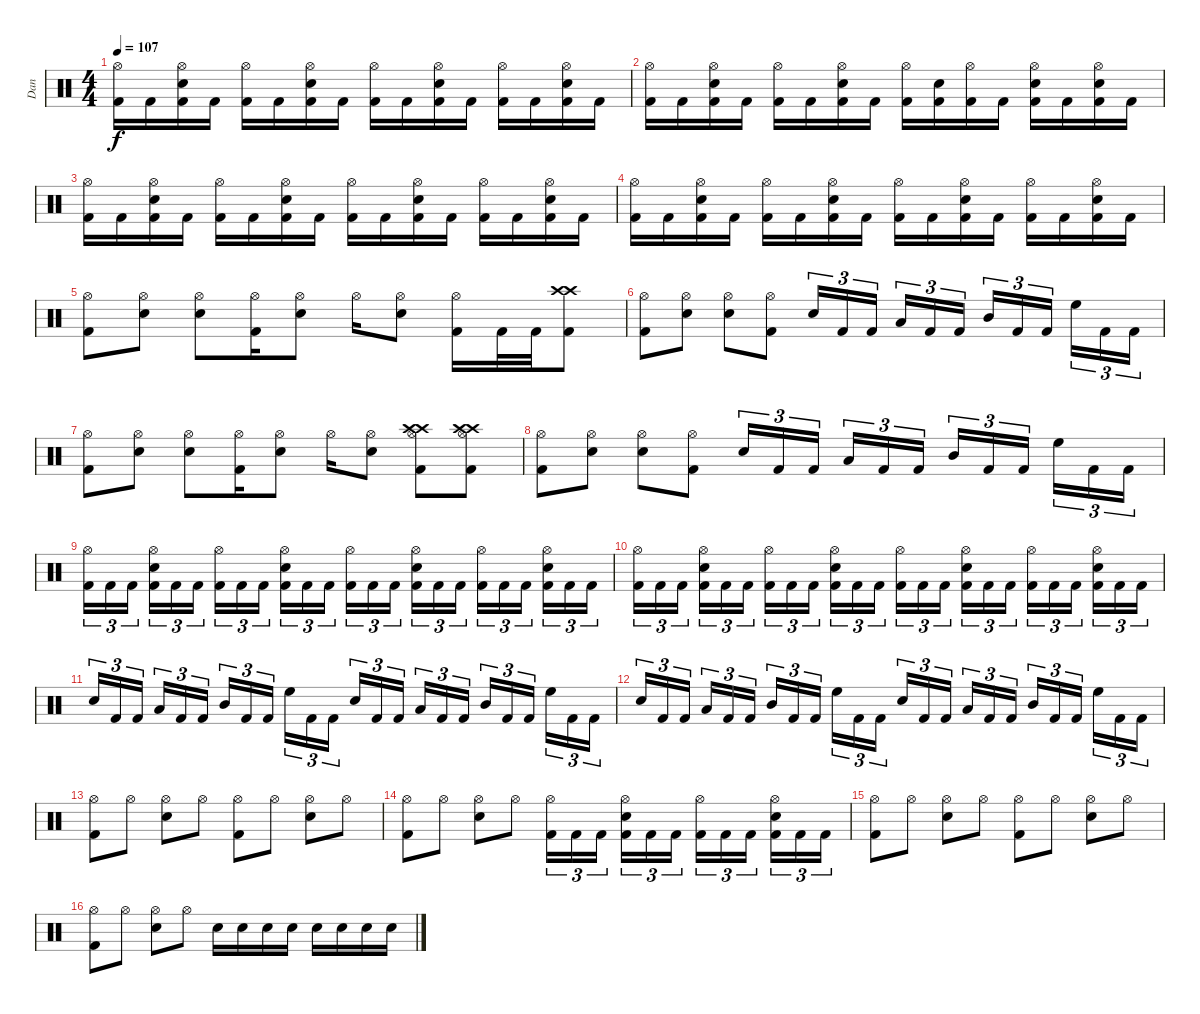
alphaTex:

\track ("Dan" "Dan") {instrument percussion}
\staff {score}
\articulation defaults
\ts (4 4)
\tempo 107
\clef neutral
\ks c
("Hi-Hat (open)" "Kick (hit) 2").16{dy f} "Kick (hit) 2".16 ("Hi-Hat (open)" "Kick (hit) 2" "Electric Snare (hit)").16 "Kick (hit) 2".16 ("Hi-Hat (open)" "Kick (hit) 2").16 "Kick (hit) 2".16 ("Hi-Hat (open)" "Kick (hit) 2" "Electric Snare (hit)").16 "Kick (hit) 2".16 ("Hi-Hat (open)" "Kick (hit) 2").16 "Kick (hit) 2".16 ("Hi-Hat (open)" "Kick (hit) 2" "Electric Snare (hit)").16 "Kick (hit) 2".16 ("Hi-Hat (open)" "Kick (hit) 2").16 "Kick (hit) 2".16 ("Hi-Hat (open)" "Kick (hit) 2" "Electric Snare (hit)").16 "Kick (hit) 2".16 |
("Hi-Hat (open)" "Kick (hit) 2").16 "Kick (hit) 2".16 ("Hi-Hat (open)" "Kick (hit) 2" "Electric Snare (hit)").16 "Kick (hit) 2".16 ("Hi-Hat (open)" "Kick (hit) 2").16 "Kick (hit) 2".16 ("Hi-Hat (open)" "Kick (hit) 2" "Electric Snare (hit)").16 "Kick (hit) 2".16 ("Hi-Hat (open)" "Kick (hit) 2").16 ("Kick (hit) 2" "Electric Snare (hit)").16 ("Hi-Hat (open)" "Kick (hit) 2").16 "Kick (hit) 2".16 ("Hi-Hat (open)" "Kick (hit) 2" "Electric Snare (hit)").16 "Kick (hit) 2".16 ("Hi-Hat (open)" "Kick (hit) 2" "Electric Snare (hit)").16 "Kick (hit) 2".16 |
("Hi-Hat (open)" "Kick (hit) 2").16 "Kick (hit) 2".16 ("Hi-Hat (open)" "Kick (hit) 2" "Electric Snare (hit)").16 "Kick (hit) 2".16 ("Hi-Hat (open)" "Kick (hit) 2").16 "Kick (hit) 2".16 ("Hi-Hat (open)" "Kick (hit) 2" "Electric Snare (hit)").16 "Kick (hit) 2".16 ("Hi-Hat (open)" "Kick (hit) 2").16 "Kick (hit) 2".16 ("Hi-Hat (open)" "Kick (hit) 2" "Electric Snare (hit)").16 "Kick (hit) 2".16 ("Hi-Hat (open)" "Kick (hit) 2").16 "Kick (hit) 2".16 ("Hi-Hat (open)" "Kick (hit) 2" "Electric Snare (hit)").16 "Kick (hit) 2".16 |
("Hi-Hat (open)" "Kick (hit) 2").16 "Kick (hit) 2".16 ("Hi-Hat (open)" "Kick (hit) 2" "Electric Snare (hit)").16 "Kick (hit) 2".16 ("Hi-Hat (open)" "Kick (hit) 2").16 "Kick (hit) 2".16 ("Hi-Hat (open)" "Kick (hit) 2" "Electric Snare (hit)").16 "Kick (hit) 2".16 ("Hi-Hat (open)" "Kick (hit) 2").16 "Kick (hit) 2".16 ("Hi-Hat (open)" "Kick (hit) 2" "Electric Snare (hit)").16 "Kick (hit) 2".16 ("Hi-Hat (open)" "Kick (hit) 2").16 "Kick (hit) 2".16 ("Hi-Hat (open)" "Kick (hit) 2" "Electric Snare (hit)").16 "Kick (hit) 2".16 |
("Kick (hit) 2" "Hi-Hat (open)").8 ("Electric Snare (hit)" "Hi-Hat (open)").8 ("Electric Snare (hit)" "Hi-Hat (open)").8 ("Kick (hit) 2" "Hi-Hat (open)").16 ("Electric Snare (hit)" "Hi-Hat (open)").8 "Hi-Hat (open)".16 ("Electric Snare (hit)" "Hi-Hat (open)").8 ("Kick (hit) 2" "Hi-Hat (open)").16 "Kick (hit) 2".32 "Kick (hit) 2".32 ("Crash high (hit)" "Crash high (hit)" "Kick (hit) 2").8 |
("Kick (hit) 2" "Hi-Hat (open)").8 ("Electric Snare (hit)" "Hi-Hat (open)").8 ("Electric Snare (hit)" "Hi-Hat (open)").8 ("Kick (hit) 2" "Hi-Hat (open)").8 "Electric Snare (hit)".16{tu (3 2)} "Kick (hit) 2".16{tu (3 2)} "Kick (hit) 2".16{tu (3 2)} "Low Tom (hit)".16{tu (3 2)} "Kick (hit) 2".16{tu (3 2)} "Kick (hit) 2".16{tu (3 2)} "Mid Tom (hit)".16{tu (3 2)} "Kick (hit) 2".16{tu (3 2)} "Kick (hit) 2".16{tu (3 2)} "High Floor Tom (hit)".16{tu (3 2)} "Kick (hit) 2".16{tu (3 2)} "Kick (hit) 2".16{tu (3 2)} |
("Kick (hit) 2" "Hi-Hat (open)").8 ("Electric Snare (hit)" "Hi-Hat (open)").8 ("Electric Snare (hit)" "Hi-Hat (open)").8 ("Kick (hit) 2" "Hi-Hat (open)").16 ("Electric Snare (hit)" "Hi-Hat (open)").8 "Hi-Hat (open)".16 ("Electric Snare (hit)" "Hi-Hat (open)").8 ("Crash high (hit)" "Crash high (hit)" "Kick (hit) 2" "Hi-Hat (open)").8 ("Crash high (hit)" "Crash high (hit)" "Kick (hit) 2" "Hi-Hat (open)").8 |
("Kick (hit) 2" "Hi-Hat (open)").8 ("Electric Snare (hit)" "Hi-Hat (open)").8 ("Electric Snare (hit)" "Hi-Hat (open)").8 ("Kick (hit) 2" "Hi-Hat (open)").8 "Electric Snare (hit)".16{tu (3 2)} "Kick (hit) 2".16{tu (3 2)} "Kick (hit) 2".16{tu (3 2)} "Low Tom (hit)".16{tu (3 2)} "Kick (hit) 2".16{tu (3 2)} "Kick (hit) 2".16{tu (3 2)} "Mid Tom (hit)".16{tu (3 2)} "Kick (hit) 2".16{tu (3 2)} "Kick (hit) 2".16{tu (3 2)} "High Floor Tom (hit)".16{tu (3 2)} "Kick (hit) 2".16{tu (3 2)} "Kick (hit) 2".16{tu (3 2)} |
("Hi-Hat (open)" "Kick (hit) 2").16{tu (3 2)} "Kick (hit) 2".16{tu (3 2)} "Kick (hit) 2".16{tu (3 2)} ("Electric Snare (hit)" "Hi-Hat (open)" "Kick (hit) 2").16{tu (3 2)} "Kick (hit) 2".16{tu (3 2)} "Kick (hit) 2".16{tu (3 2)} ("Hi-Hat (open)" "Kick (hit) 2").16{tu (3 2)} "Kick (hit) 2".16{tu (3 2)} "Kick (hit) 2".16{tu (3 2)} ("Electric Snare (hit)" "Hi-Hat (open)" "Kick (hit) 2").16{tu (3 2)} "Kick (hit) 2".16{tu (3 2)} "Kick (hit) 2".16{tu (3 2)} ("Hi-Hat (open)" "Kick (hit) 2").16{tu (3 2)} "Kick (hit) 2".16{tu (3 2)} "Kick (hit) 2".16{tu (3 2)} ("Electric Snare (hit)" "Hi-Hat (open)" "Kick (hit) 2").16{tu (3 2)} "Kick (hit) 2".16{tu (3 2)} "Kick (hit) 2".16{tu (3 2)} ("Hi-Hat (open)" "Kick (hit) 2").16{tu (3 2)} "Kick (hit) 2".16{tu (3 2)} "Kick (hit) 2".16{tu (3 2)} ("Electric Snare (hit)" "Hi-Hat (open)" "Kick (hit) 2").16{tu (3 2)} "Kick (hit) 2".16{tu (3 2)} "Kick (hit) 2".16{tu (3 2)} |
("Hi-Hat (open)" "Kick (hit) 2").16{tu (3 2)} "Kick (hit) 2".16{tu (3 2)} "Kick (hit) 2".16{tu (3 2)} ("Electric Snare (hit)" "Hi-Hat (open)" "Kick (hit) 2").16{tu (3 2)} "Kick (hit) 2".16{tu (3 2)} "Kick (hit) 2".16{tu (3 2)} ("Hi-Hat (open)" "Kick (hit) 2").16{tu (3 2)} "Kick (hit) 2".16{tu (3 2)} "Kick (hit) 2".16{tu (3 2)} ("Electric Snare (hit)" "Hi-Hat (open)" "Kick (hit) 2").16{tu (3 2)} "Kick (hit) 2".16{tu (3 2)} "Kick (hit) 2".16{tu (3 2)} ("Hi-Hat (open)" "Kick (hit) 2").16{tu (3 2)} "Kick (hit) 2".16{tu (3 2)} "Kick (hit) 2".16{tu (3 2)} ("Electric Snare (hit)" "Hi-Hat (open)" "Kick (hit) 2").16{tu (3 2)} "Kick (hit) 2".16{tu (3 2)} "Kick (hit) 2".16{tu (3 2)} ("Hi-Hat (open)" "Kick (hit) 2").16{tu (3 2)} "Kick (hit) 2".16{tu (3 2)} "Kick (hit) 2".16{tu (3 2)} ("Electric Snare (hit)" "Hi-Hat (open)" "Kick (hit) 2").16{tu (3 2)} "Kick (hit) 2".16{tu (3 2)} "Kick (hit) 2".16{tu (3 2)} |
"Electric Snare (hit)".16{tu (3 2)} "Kick (hit) 2".16{tu (3 2)} "Kick (hit) 2".16{tu (3 2)} "Low Tom (hit)".16{tu (3 2)} "Kick (hit) 2".16{tu (3 2)} "Kick (hit) 2".16{tu (3 2)} "Mid Tom (hit)".16{tu (3 2)} "Kick (hit) 2".16{tu (3 2)} "Kick (hit) 2".16{tu (3 2)} "High Floor Tom (hit)".16{tu (3 2)} "Kick (hit) 2".16{tu (3 2)} "Kick (hit) 2".16{tu (3 2)} "Electric Snare (hit)".16{tu (3 2)} "Kick (hit) 2".16{tu (3 2)} "Kick (hit) 2".16{tu (3 2)} "Low Tom (hit)".16{tu (3 2)} "Kick (hit) 2".16{tu (3 2)} "Kick (hit) 2".16{tu (3 2)} "Mid Tom (hit)".16{tu (3 2)} "Kick (hit) 2".16{tu (3 2)} "Kick (hit) 2".16{tu (3 2)} "High Floor Tom (hit)".16{tu (3 2)} "Kick (hit) 2".16{tu (3 2)} "Kick (hit) 2".16{tu (3 2)} |
"Electric Snare (hit)".16{tu (3 2)} "Kick (hit) 2".16{tu (3 2)} "Kick (hit) 2".16{tu (3 2)} "Low Tom (hit)".16{tu (3 2)} "Kick (hit) 2".16{tu (3 2)} "Kick (hit) 2".16{tu (3 2)} "Mid Tom (hit)".16{tu (3 2)} "Kick (hit) 2".16{tu (3 2)} "Kick (hit) 2".16{tu (3 2)} "High Floor Tom (hit)".16{tu (3 2)} "Kick (hit) 2".16{tu (3 2)} "Kick (hit) 2".16{tu (3 2)} "Electric Snare (hit)".16{tu (3 2)} "Kick (hit) 2".16{tu (3 2)} "Kick (hit) 2".16{tu (3 2)} "Low Tom (hit)".16{tu (3 2)} "Kick (hit) 2".16{tu (3 2)} "Kick (hit) 2".16{tu (3 2)} "Mid Tom (hit)".16{tu (3 2)} "Kick (hit) 2".16{tu (3 2)} "Kick (hit) 2".16{tu (3 2)} "High Floor Tom (hit)".16{tu (3 2)} "Kick (hit) 2".16{tu (3 2)} "Kick (hit) 2".16{tu (3 2)} |
("Kick (hit) 2" "Hi-Hat (open)").8 "Hi-Hat (open)".8 ("Electric Snare (hit)" "Hi-Hat (open)").8 "Hi-Hat (open)".8 ("Kick (hit) 2" "Hi-Hat (open)").8 "Hi-Hat (open)".8 ("Electric Snare (hit)" "Hi-Hat (open)").8 "Hi-Hat (open)".8 |
("Kick (hit) 2" "Hi-Hat (open)").8 "Hi-Hat (open)".8 ("Electric Snare (hit)" "Hi-Hat (open)").8 "Hi-Hat (open)".8 ("Kick (hit) 2" "Hi-Hat (open)").16{tu (3 2)} "Kick (hit) 2".16{tu (3 2)} "Kick (hit) 2".16{tu (3 2)} ("Electric Snare (hit)" "Kick (hit) 2" "Hi-Hat (open)").16{tu (3 2)} "Kick (hit) 2".16{tu (3 2)} "Kick (hit) 2".16{tu (3 2)} ("Kick (hit) 2" "Hi-Hat (open)").16{tu (3 2)} "Kick (hit) 2".16{tu (3 2)} "Kick (hit) 2".16{tu (3 2)} ("Electric Snare (hit)" "Kick (hit) 2" "Hi-Hat (open)").16{tu (3 2)} "Kick (hit) 2".16{tu (3 2)} "Kick (hit) 2".16{tu (3 2)} |
("Kick (hit) 2" "Hi-Hat (open)").8 "Hi-Hat (open)".8 ("Electric Snare (hit)" "Hi-Hat (open)").8 "Hi-Hat (open)".8 ("Kick (hit) 2" "Hi-Hat (open)").8 "Hi-Hat (open)".8 ("Electric Snare (hit)" "Hi-Hat (open)").8 "Hi-Hat (open)".8 |
("Kick (hit) 2" "Hi-Hat (open)").8 "Hi-Hat (open)".8 ("Electric Snare (hit)" "Hi-Hat (open)").8 "Hi-Hat (open)".8 "Electric Snare (hit)".16 "Electric Snare (hit)".16 "Electric Snare (hit)".16 "Electric Snare (hit)".16 "Electric Snare (hit)".16 "Electric Snare (hit)".16 "Electric Snare (hit)".16 "Electric Snare (hit)".16
